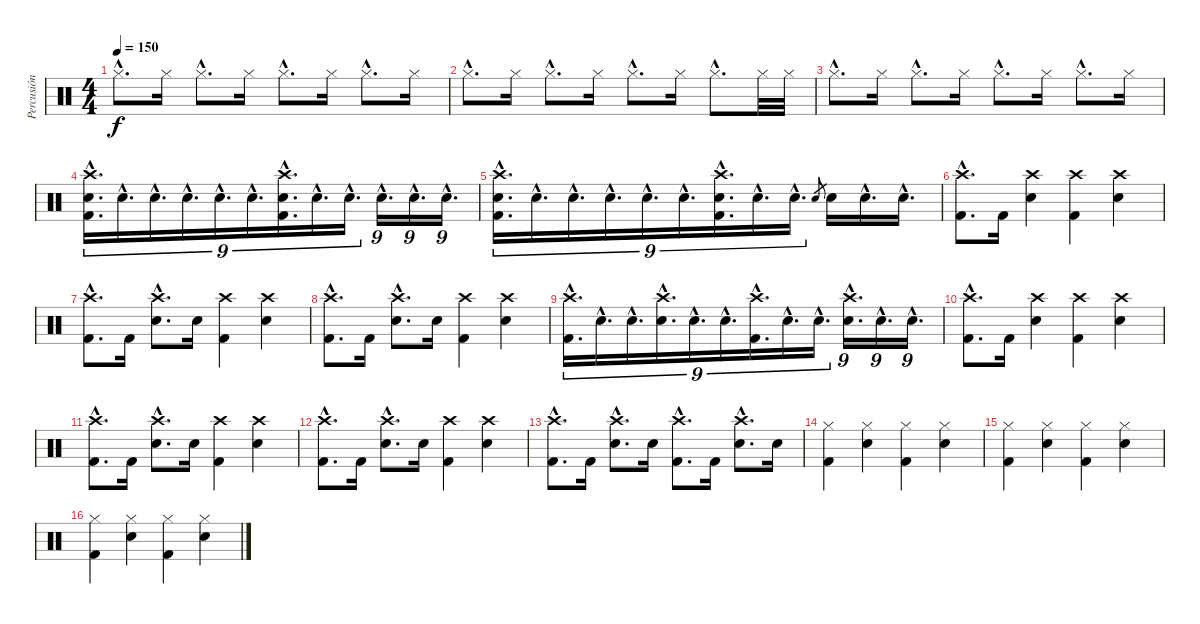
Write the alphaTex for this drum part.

\track ("Percusión" "Percusión") {instrument percussion}
\staff {score}
\articulation defaults
\ts (4 4)
\tempo 150
\clef neutral
\ks c "Hi-Hat (closed)"{hac}.8{d dy f} "Hi-Hat (closed)".16 "Hi-Hat (closed)"{hac}.8{d} "Hi-Hat (closed)".16 "Hi-Hat (closed)"{hac}.8{d} "Hi-Hat (closed)".16 "Hi-Hat (closed)"{hac}.8{d} "Hi-Hat (closed)".16
|
"Hi-Hat (closed)"{hac}.8{d} "Hi-Hat (closed)".16 "Hi-Hat (closed)"{hac}.8{d} "Hi-Hat (closed)".16 "Hi-Hat (closed)"{hac}.8{d} "Hi-Hat (closed)".16 "Hi-Hat (closed)"{hac}.8{d} "Hi-Hat (closed)".32 "Hi-Hat (closed)".32 |
"Hi-Hat (closed)"{hac}.8{d} "Hi-Hat (closed)".16 "Hi-Hat (closed)"{hac}.8{d} "Hi-Hat (closed)".16 "Hi-Hat (closed)"{hac}.8{d} "Hi-Hat (closed)".16 "Hi-Hat (closed)"{hac}.8{d} "Hi-Hat (closed)".16 |
("Crash high (hit)"{hac} "Electric Snare (hit)"{hac} "Kick (hit) 2"{hac}).16{d tu (9 8)} "Electric Snare (hit)"{hac}.16{d tu (9 8)} "Electric Snare (hit)"{hac}.16{d tu (9 8)} "Electric Snare (hit)"{hac}.16{d tu (9 8)} "Electric Snare (hit)"{hac}.16{d tu (9 8)} "Electric Snare (hit)"{hac}.16{d tu (9 8)} ("Crash high (hit)"{hac} "Electric Snare (hit)"{hac} "Kick (hit) 2"{hac}).16{d tu (9 8)} "Electric Snare (hit)"{hac}.16{d tu (9 8)} "Electric Snare (hit)"{hac}.16{d tu (9 8)} "Electric Snare (hit)"{hac}.16{d tu (9 8)} "Electric Snare (hit)"{hac}.16{d tu (9 8)} "Electric Snare (hit)"{hac}.16{d tu (9 8)} |
("Crash high (hit)"{hac} "Electric Snare (hit)"{hac} "Kick (hit) 2"{hac}).16{d tu (9 8)} "Electric Snare (hit)"{hac}.16{d tu (9 8)} "Electric Snare (hit)"{hac}.16{d tu (9 8)} "Electric Snare (hit)"{hac}.16{d tu (9 8)} "Electric Snare (hit)"{hac}.16{d tu (9 8)} "Electric Snare (hit)"{hac}.16{d tu (9 8)} ("Crash high (hit)"{hac} "Electric Snare (hit)"{hac} "Kick (hit) 2"{hac}).16{d tu (9 8)} "Electric Snare (hit)"{hac}.16{d tu (9 8)} "Electric Snare (hit)"{hac}.16{d tu (9 8)} "Electric Snare (hit)".8{gr} "Electric Snare (hit)".16 "Electric Snare (hit)"{hac}.16{d} "Electric Snare (hit)"{hac}.16{d} |
("Crash high (hit)"{hac} "Kick (hit) 2"{hac}).8{d} "Kick (hit) 2".16 ("Crash high (hit)" "Electric Snare (hit)").4 ("Crash high (hit)" "Kick (hit) 2").4 ("Crash high (hit)" "Electric Snare (hit)").4 |
("Crash high (hit)"{hac} "Kick (hit) 2"{hac}).8{d} "Kick (hit) 2".16 ("Crash high (hit)"{hac} "Electric Snare (hit)"{hac}).8{d} "Electric Snare (hit)".16 ("Crash high (hit)" "Kick (hit) 2").4 ("Crash high (hit)" "Electric Snare (hit)").4 |
("Crash high (hit)"{hac} "Kick (hit) 2"{hac}).8{d} "Kick (hit) 2".16 ("Crash high (hit)"{hac} "Electric Snare (hit)"{hac}).8{d} "Electric Snare (hit)".16 ("Crash high (hit)" "Kick (hit) 2").4 ("Crash high (hit)" "Electric Snare (hit)").4 |
("Crash high (hit)"{hac} "Kick (hit) 2"{hac}).16{d tu (9 8)} "Electric Snare (hit)"{hac}.16{d tu (9 8)} "Electric Snare (hit)"{hac}.16{d tu (9 8)} ("Crash high (hit)"{hac} "Electric Snare (hit)"{hac}).16{d tu (9 8)} "Electric Snare (hit)"{hac}.16{d tu (9 8)} "Electric Snare (hit)"{hac}.16{d tu (9 8)} ("Crash high (hit)"{hac} "Kick (hit) 2"{hac}).16{d tu (9 8)} "Electric Snare (hit)"{hac}.16{d tu (9 8)} "Electric Snare (hit)"{hac}.16{d tu (9 8)} ("Crash high (hit)"{hac} "Electric Snare (hit)"{hac}).16{d tu (9 8)} "Electric Snare (hit)"{hac}.16{d tu (9 8)} "Electric Snare (hit)"{hac}.16{d tu (9 8)} |
("Crash high (hit)"{hac} "Kick (hit) 2"{hac}).8{d} "Kick (hit) 2".16 ("Crash high (hit)" "Electric Snare (hit)").4 ("Crash high (hit)" "Kick (hit) 2").4 ("Crash high (hit)" "Electric Snare (hit)").4 |
("Crash high (hit)"{hac} "Kick (hit) 2"{hac}).8{d} "Kick (hit) 2".16 ("Crash high (hit)"{hac} "Electric Snare (hit)"{hac}).8{d} "Electric Snare (hit)".16 ("Crash high (hit)" "Kick (hit) 2").4 ("Crash high (hit)" "Electric Snare (hit)").4 |
("Crash high (hit)"{hac} "Kick (hit) 2"{hac}).8{d} "Kick (hit) 2".16 ("Crash high (hit)"{hac} "Electric Snare (hit)"{hac}).8{d} "Electric Snare (hit)".16 ("Crash high (hit)" "Kick (hit) 2").4 ("Crash high (hit)" "Electric Snare (hit)").4 |
("Crash high (hit)"{hac} "Kick (hit) 2"{hac}).8{d} "Kick (hit) 2".16 ("Crash high (hit)"{hac} "Electric Snare (hit)"{hac}).8{d} "Electric Snare (hit)".16 ("Crash high (hit)"{hac} "Kick (hit) 2"{hac}).8{d} "Kick (hit) 2".16 ("Crash high (hit)"{hac} "Electric Snare (hit)"{hac}).8{d} "Electric Snare (hit)".16 |
("Hi-Hat (closed)" "Kick (hit) 2").4 ("Hi-Hat (closed)" "Electric Snare (hit)").4 ("Hi-Hat (closed)" "Kick (hit) 2").4 ("Hi-Hat (closed)" "Electric Snare (hit)").4 |
("Hi-Hat (closed)" "Kick (hit) 2").4 ("Hi-Hat (closed)" "Electric Snare (hit)").4 ("Hi-Hat (closed)" "Kick (hit) 2").4 ("Hi-Hat (closed)" "Electric Snare (hit)").4 |
("Hi-Hat (closed)" "Kick (hit) 2").4 ("Hi-Hat (closed)" "Electric Snare (hit)").4 ("Hi-Hat (closed)" "Kick (hit) 2").4 ("Hi-Hat (closed)" "Electric Snare (hit)").4
